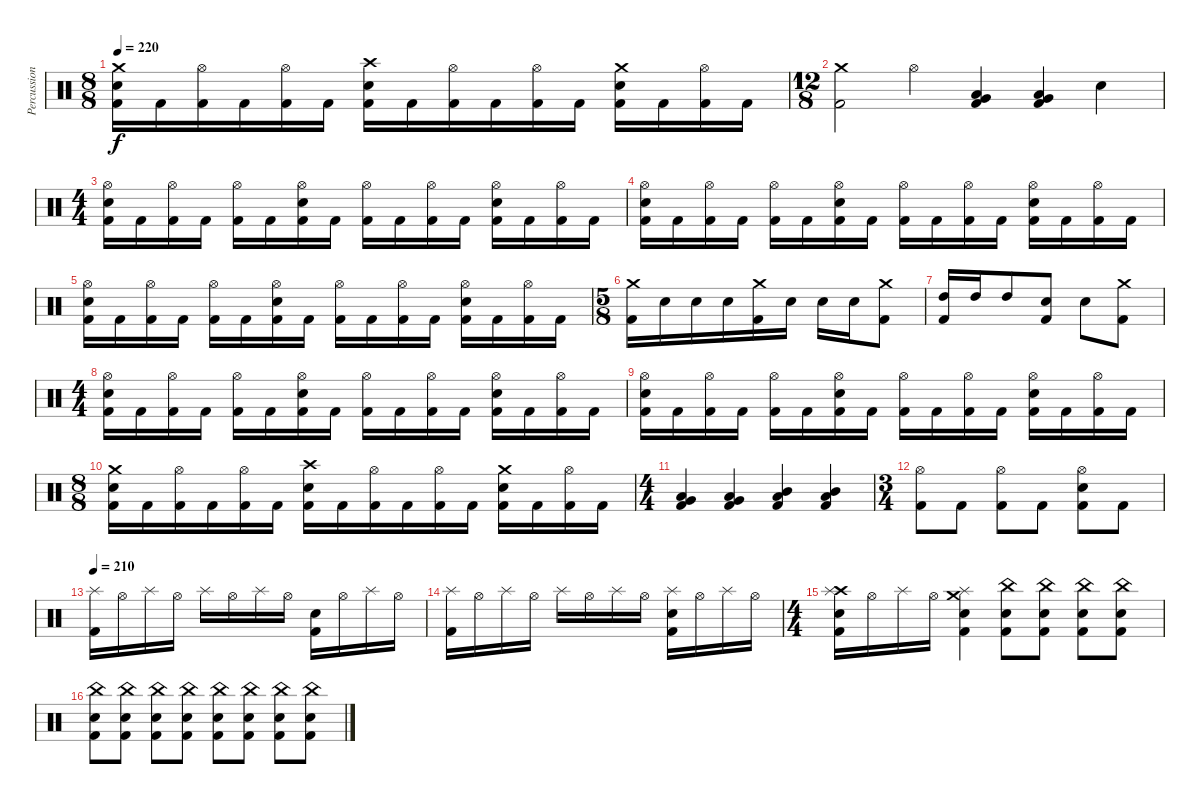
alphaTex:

\track ("Percussions" "Percussion") {instrument percussion}
\staff {score}
\articulation defaults
\ts (8 8)
\tempo 220
\clef neutral
\ks c
("Crash medium (hit)" "Electric Snare (hit)" "Kick (hit) 2").16{dy f} "Kick (hit) 2".16 ("Hi-Hat (open)" "Kick (hit) 2").16 "Kick (hit) 2".16 ("Hi-Hat (open)" "Kick (hit) 2").16 "Kick (hit) 2".16 ("Crash high (hit)" "Electric Snare (hit)" "Kick (hit) 2").16 "Kick (hit) 2".16 ("Hi-Hat (open)" "Kick (hit) 2").16 "Kick (hit) 2".16 ("Hi-Hat (open)" "Kick (hit) 2").16 "Kick (hit) 2".16 ("Crash medium (hit)" "Electric Snare (hit)" "Kick (hit) 2").16 "Kick (hit) 2".16 ("Hi-Hat (open)" "Kick (hit) 2").16 "Kick (hit) 2".16 |
\ts (12 8)
("Crash medium (hit)" "Kick (hit) 2").2 "Hi-Hat (open)".4 ("Low Tom (hit)" "Very Low Tom (hit)" "Kick (hit) 2").4 ("Low Tom (hit)" "Very Low Tom (hit)" "Kick (hit) 2").4 "Electric Snare (hit)".4 |
\ts (4 4)
("Hi-Hat (open)" "Electric Snare (hit)" "Kick (hit) 2").16 "Kick (hit) 2".16 ("Hi-Hat (open)" "Kick (hit) 2").16 "Kick (hit) 2".16 ("Hi-Hat (open)" "Kick (hit) 2").16 "Kick (hit) 2".16 ("Hi-Hat (open)" "Electric Snare (hit)" "Kick (hit) 2").16 "Kick (hit) 2".16 ("Hi-Hat (open)" "Kick (hit) 2").16 "Kick (hit) 2".16 ("Hi-Hat (open)" "Kick (hit) 2").16 "Kick (hit) 2".16 ("Hi-Hat (open)" "Electric Snare (hit)" "Kick (hit) 2").16 "Kick (hit) 2".16 ("Hi-Hat (open)" "Kick (hit) 2").16 "Kick (hit) 2".16 |
("Hi-Hat (open)" "Electric Snare (hit)" "Kick (hit) 2").16 "Kick (hit) 2".16 ("Hi-Hat (open)" "Kick (hit) 2").16 "Kick (hit) 2".16 ("Hi-Hat (open)" "Kick (hit) 2").16 "Kick (hit) 2".16 ("Hi-Hat (open)" "Electric Snare (hit)" "Kick (hit) 2").16 "Kick (hit) 2".16 ("Hi-Hat (open)" "Kick (hit) 2").16 "Kick (hit) 2".16 ("Hi-Hat (open)" "Kick (hit) 2").16 "Kick (hit) 2".16 ("Hi-Hat (open)" "Electric Snare (hit)" "Kick (hit) 2").16 "Kick (hit) 2".16 ("Hi-Hat (open)" "Kick (hit) 2").16 "Kick (hit) 2".16 |
("Hi-Hat (open)" "Electric Snare (hit)" "Kick (hit) 2").16 "Kick (hit) 2".16 ("Hi-Hat (open)" "Kick (hit) 2").16 "Kick (hit) 2".16 ("Hi-Hat (open)" "Kick (hit) 2").16 "Kick (hit) 2".16 ("Hi-Hat (open)" "Electric Snare (hit)" "Kick (hit) 2").16 "Kick (hit) 2".16 ("Hi-Hat (open)" "Kick (hit) 2").16 "Kick (hit) 2".16 ("Hi-Hat (open)" "Kick (hit) 2").16 "Kick (hit) 2".16 ("Hi-Hat (open)" "Electric Snare (hit)" "Kick (hit) 2").16 "Kick (hit) 2".16 ("Hi-Hat (open)" "Kick (hit) 2").16 "Kick (hit) 2".16 |
\ts (5 8)
("Crash medium (hit)" "Kick (hit) 2").16 "Electric Snare (hit)".16 "Electric Snare (hit)".16 "Electric Snare (hit)".16 ("Crash medium (hit)" "Kick (hit) 2").16 "Electric Snare (hit)".16 "Electric Snare (hit)".16 "Electric Snare (hit)".16 ("Crash medium (hit)" "Kick (hit) 2").8 |
("High Tom (hit)" "Kick (hit) 2").16 "High Tom (hit)".16 "High Tom (hit)".8 ("Electric Snare (hit)" "Kick (hit) 2").8 "Electric Snare (hit)".8 ("Crash medium (hit)" "Kick (hit) 2").8 |
\ts (4 4)
("Hi-Hat (open)" "Electric Snare (hit)" "Kick (hit) 2").16 "Kick (hit) 2".16 ("Hi-Hat (open)" "Kick (hit) 2").16 "Kick (hit) 2".16 ("Hi-Hat (open)" "Kick (hit) 2").16 "Kick (hit) 2".16 ("Hi-Hat (open)" "Electric Snare (hit)" "Kick (hit) 2").16 "Kick (hit) 2".16 ("Hi-Hat (open)" "Kick (hit) 2").16 "Kick (hit) 2".16 ("Hi-Hat (open)" "Kick (hit) 2").16 "Kick (hit) 2".16 ("Hi-Hat (open)" "Electric Snare (hit)" "Kick (hit) 2").16 "Kick (hit) 2".16 ("Hi-Hat (open)" "Kick (hit) 2").16 "Kick (hit) 2".16 |
("Hi-Hat (open)" "Electric Snare (hit)" "Kick (hit) 2").16 "Kick (hit) 2".16 ("Hi-Hat (open)" "Kick (hit) 2").16 "Kick (hit) 2".16 ("Hi-Hat (open)" "Kick (hit) 2").16 "Kick (hit) 2".16 ("Hi-Hat (open)" "Electric Snare (hit)" "Kick (hit) 2").16 "Kick (hit) 2".16 ("Hi-Hat (open)" "Kick (hit) 2").16 "Kick (hit) 2".16 ("Hi-Hat (open)" "Kick (hit) 2").16 "Kick (hit) 2".16 ("Hi-Hat (open)" "Electric Snare (hit)" "Kick (hit) 2").16 "Kick (hit) 2".16 ("Hi-Hat (open)" "Kick (hit) 2").16 "Kick (hit) 2".16 |
\ts (8 8)
("Crash medium (hit)" "Electric Snare (hit)" "Kick (hit) 2").16 "Kick (hit) 2".16 ("Hi-Hat (open)" "Kick (hit) 2").16 "Kick (hit) 2".16 ("Hi-Hat (open)" "Kick (hit) 2").16 "Kick (hit) 2".16 ("Crash high (hit)" "Electric Snare (hit)" "Kick (hit) 2").16 "Kick (hit) 2".16 ("Hi-Hat (open)" "Kick (hit) 2").16 "Kick (hit) 2".16 ("Hi-Hat (open)" "Kick (hit) 2").16 "Kick (hit) 2".16 ("Crash medium (hit)" "Electric Snare (hit)" "Kick (hit) 2").16 "Kick (hit) 2".16 ("Hi-Hat (open)" "Kick (hit) 2").16 "Kick (hit) 2".16 |
\ts (4 4)
("Low Tom (hit)" "Very Low Tom (hit)" "Kick (hit) 2").4 ("Low Tom (hit)" "Very Low Tom (hit)" "Kick (hit) 2").4 ("Mid Tom (hit)" "Low Tom (hit)" "Kick (hit) 2").4 ("Mid Tom (hit)" "Low Tom (hit)" "Kick (hit) 2").4 |
\ts (3 4)
("Hi-Hat (open)" "Kick (hit) 2").8 "Kick (hit) 2".8 ("Hi-Hat (open)" "Kick (hit) 2").8 "Kick (hit) 2".8 ("Hi-Hat (open)" "Electric Snare (hit)" "Kick (hit) 2").8 "Kick (hit) 2".8 |
\tempo 210
("Splash (hit)" "Kick (hit) 2").16 "Hi-Hat (open)".16 "Splash (hit)".16 "Hi-Hat (open)".16 "Splash (hit)".16 "Hi-Hat (open)".16 "Splash (hit)".16 "Hi-Hat (open)".16 ("Electric Snare (hit)" "Kick (hit) 2").16 "Hi-Hat (open)".16 "Splash (hit)".16 "Hi-Hat (open)".16 |
("Splash (hit)" "Kick (hit) 2").16 "Hi-Hat (open)".16 "Splash (hit)".16 "Hi-Hat (open)".16 "Splash (hit)".16 "Hi-Hat (open)".16 "Splash (hit)".16 "Hi-Hat (open)".16 ("Splash (hit)" "Electric Snare (hit)" "Kick (hit) 2").16 "Hi-Hat (open)".16 "Splash (hit)".16 "Hi-Hat (open)".16 |
\ts (4 4)
("Crash high (hit)" "Splash (hit)" "Electric Snare (hit)" "Kick (hit) 2").16 "Hi-Hat (open)".16 "Splash (hit)".16 "Hi-Hat (open)".16 ("Crash medium (hit)" "Splash (hit)" "Electric Snare (hit)" "Kick (hit) 2").4 ("China (hit)" "Electric Snare (hit)" "Kick (hit) 2").8 ("China (hit)" "Electric Snare (hit)" "Kick (hit) 2").8 ("China (hit)" "Electric Snare (hit)" "Kick (hit) 2").8 ("China (hit)" "Electric Snare (hit)" "Kick (hit) 2").8 |
("China (hit)" "Electric Snare (hit)" "Kick (hit) 2").8 ("China (hit)" "Electric Snare (hit)" "Kick (hit) 2").8 ("China (hit)" "Electric Snare (hit)" "Kick (hit) 2").8 ("China (hit)" "Electric Snare (hit)" "Kick (hit) 2").8 ("China (hit)" "Electric Snare (hit)" "Kick (hit) 2").8 ("China (hit)" "Electric Snare (hit)" "Kick (hit) 2").8 ("China (hit)" "Electric Snare (hit)" "Kick (hit) 2").8 ("China (hit)" "Electric Snare (hit)" "Kick (hit) 2").8
